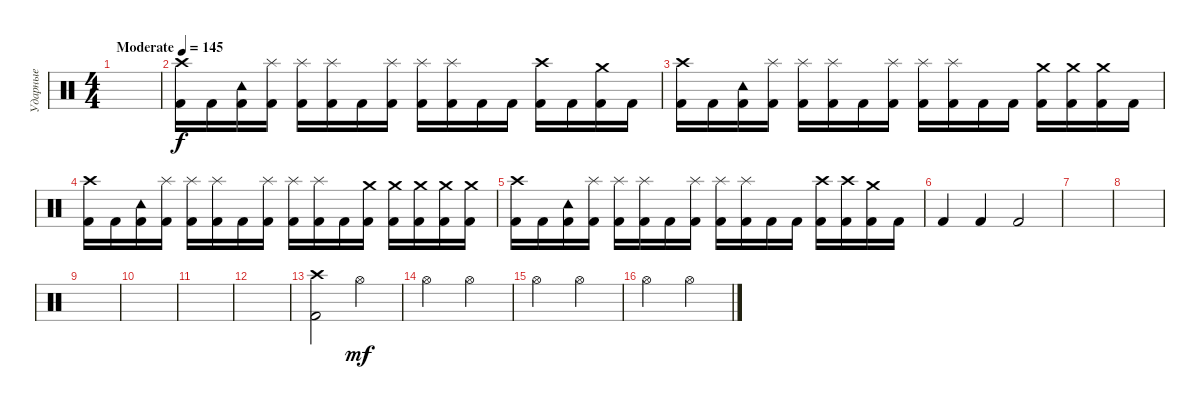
\track ("Ударные" "Ударные") {instrument percussion}
\staff {score}
\articulation defaults
\ts (4 4)
\tempo (145 "Moderate")
\clef neutral
\ks c
|
("Kick (hit) 2" "Crash high (hit)").16 "Kick (hit) 2".16 ("Kick (hit) 2" "Tambourine (hit)").16 ("Kick (hit) 2" "Splash (hit)").16 ("Kick (hit) 2" "Splash (hit)").16 ("Kick (hit) 2" "Splash (hit)").16 "Kick (hit) 2".16 ("Kick (hit) 2" "Splash (hit)").16 ("Kick (hit) 2" "Splash (hit)").16 ("Kick (hit) 2" "Splash (hit)").16 "Kick (hit) 2".16 "Kick (hit) 2".16 ("Kick (hit) 2" "Crash high (hit)").16 "Kick (hit) 2".16 ("Kick (hit) 2" "Crash medium (hit)").16 "Kick (hit) 2".16 |
("Kick (hit) 2" "Crash high (hit)").16 "Kick (hit) 2".16 ("Kick (hit) 2" "Tambourine (hit)").16 ("Kick (hit) 2" "Splash (hit)").16 ("Kick (hit) 2" "Splash (hit)").16 ("Kick (hit) 2" "Splash (hit)").16 "Kick (hit) 2".16 ("Kick (hit) 2" "Splash (hit)").16 ("Kick (hit) 2" "Splash (hit)").16 ("Kick (hit) 2" "Splash (hit)").16 "Kick (hit) 2".16 "Kick (hit) 2".16 ("Kick (hit) 2" "Crash medium (hit)").16 ("Kick (hit) 2" "Crash medium (hit)").16 ("Kick (hit) 2" "Crash medium (hit)").16 "Kick (hit) 2".16 |
("Kick (hit) 2" "Crash high (hit)").16 "Kick (hit) 2".16 ("Kick (hit) 2" "Tambourine (hit)").16 ("Kick (hit) 2" "Splash (hit)").16 ("Kick (hit) 2" "Splash (hit)").16 ("Kick (hit) 2" "Splash (hit)").16 "Kick (hit) 2".16 ("Kick (hit) 2" "Splash (hit)").16 ("Kick (hit) 2" "Splash (hit)").16 ("Kick (hit) 2" "Splash (hit)").16 "Kick (hit) 2".16 ("Kick (hit) 2" "Crash medium (hit)").16 ("Kick (hit) 2" "Crash medium (hit)").16 ("Kick (hit) 2" "Crash medium (hit)").16 ("Kick (hit) 2" "Crash medium (hit)").16 ("Kick (hit) 2" "Crash medium (hit)").16 |
("Kick (hit) 2" "Crash high (hit)").16 "Kick (hit) 2".16 ("Kick (hit) 2" "Tambourine (hit)").16 ("Kick (hit) 2" "Splash (hit)").16 ("Kick (hit) 2" "Splash (hit)").16 ("Kick (hit) 2" "Splash (hit)").16 "Kick (hit) 2".16 ("Kick (hit) 2" "Splash (hit)").16 ("Kick (hit) 2" "Splash (hit)").16 ("Kick (hit) 2" "Splash (hit)").16 "Kick (hit) 2".16 "Kick (hit) 2".16 ("Kick (hit) 2" "Crash high (hit)").16 ("Kick (hit) 2" "Crash high (hit)").16 ("Kick (hit) 2" "Crash medium (hit)").16 "Kick (hit) 2".16 |
"Kick (hit) 2".4 "Kick (hit) 2".4 "Kick (hit) 2".2 |
|
|
|
|
|
|
("Kick (hit) 2" "Crash high (hit)").2 "Hi-Hat (open)".2{dy mf} |
"Hi-Hat (open)".2 "Hi-Hat (open)".2 |
"Hi-Hat (open)".2 "Hi-Hat (open)".2 |
"Hi-Hat (open)".2 "Hi-Hat (open)".2
